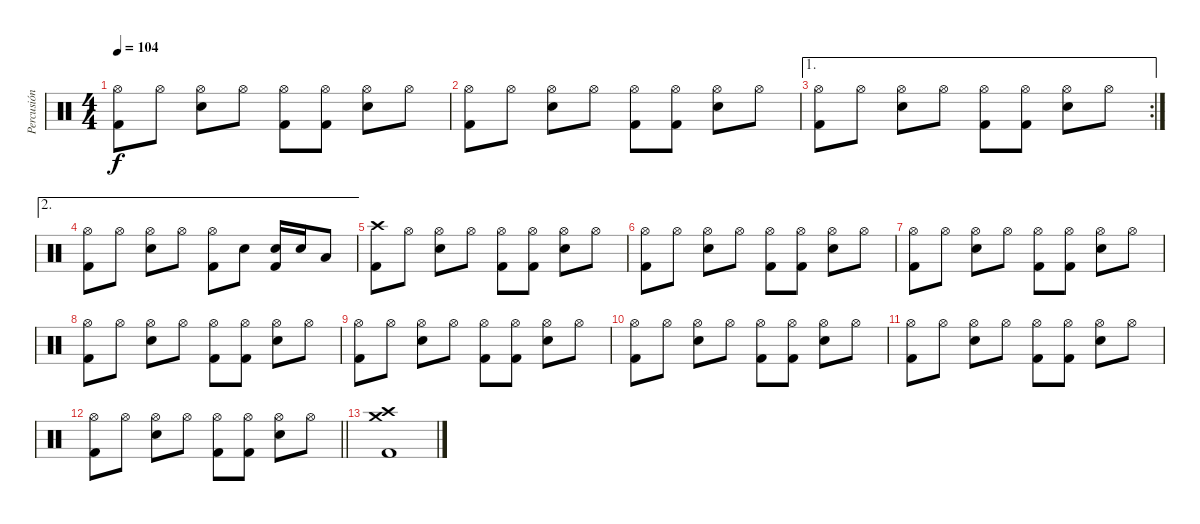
\track ("Percusión" "Percusión") {instrument percussion}
\staff {score}
\articulation defaults
\ts (4 4)
\tempo 104
\clef neutral
\ks c
("Hi-Hat (open)" "Kick (hit) 2").8{dy f} "Hi-Hat (open)".8 ("Hi-Hat (open)" "Snare (hit) 2").8 "Hi-Hat (open)".8 ("Hi-Hat (open)" "Kick (hit) 2").8 ("Hi-Hat (open)" "Kick (hit) 2").8 ("Hi-Hat (open)" "Snare (hit) 2").8 "Hi-Hat (open)".8 |
("Hi-Hat (open)" "Kick (hit) 2").8 "Hi-Hat (open)".8 ("Hi-Hat (open)" "Snare (hit) 2").8 "Hi-Hat (open)".8 ("Hi-Hat (open)" "Kick (hit) 2").8 ("Hi-Hat (open)" "Kick (hit) 2").8 ("Hi-Hat (open)" "Snare (hit) 2").8 "Hi-Hat (open)".8 |
\ae 1
\rc 2
("Hi-Hat (open)" "Kick (hit) 2").8 "Hi-Hat (open)".8 ("Hi-Hat (open)" "Snare (hit) 2").8 "Hi-Hat (open)".8 ("Hi-Hat (open)" "Kick (hit) 2").8 ("Hi-Hat (open)" "Kick (hit) 2").8 ("Hi-Hat (open)" "Snare (hit) 2").8 "Hi-Hat (open)".8 |
\ae 2
("Hi-Hat (open)" "Kick (hit) 2").8 "Hi-Hat (open)".8 ("Hi-Hat (open)" "Snare (hit) 2").8 "Hi-Hat (open)".8 ("Hi-Hat (open)" "Kick (hit) 2").8 "Snare (hit) 2".8 ("Snare (hit) 2" "Kick (hit) 2").16 "Snare (hit) 2".16 "Low Tom (hit)".8 |
("Crash high (hit)" "Kick (hit) 2").8 "Hi-Hat (open)".8 ("Hi-Hat (open)" "Snare (hit) 2").8 "Hi-Hat (open)".8 ("Hi-Hat (open)" "Kick (hit) 2").8 ("Hi-Hat (open)" "Kick (hit) 2").8 ("Hi-Hat (open)" "Snare (hit) 2").8 "Hi-Hat (open)".8 |
("Hi-Hat (open)" "Kick (hit) 2").8 "Hi-Hat (open)".8 ("Hi-Hat (open)" "Snare (hit) 2").8 "Hi-Hat (open)".8 ("Hi-Hat (open)" "Kick (hit) 2").8 ("Hi-Hat (open)" "Kick (hit) 2").8 ("Hi-Hat (open)" "Snare (hit) 2").8 "Hi-Hat (open)".8 |
("Hi-Hat (open)" "Kick (hit) 2").8 "Hi-Hat (open)".8 ("Hi-Hat (open)" "Snare (hit) 2").8 "Hi-Hat (open)".8 ("Hi-Hat (open)" "Kick (hit) 2").8 ("Hi-Hat (open)" "Kick (hit) 2").8 ("Hi-Hat (open)" "Snare (hit) 2").8 "Hi-Hat (open)".8 |
("Hi-Hat (open)" "Kick (hit) 2").8 "Hi-Hat (open)".8 ("Hi-Hat (open)" "Snare (hit) 2").8 "Hi-Hat (open)".8 ("Hi-Hat (open)" "Kick (hit) 2").8 ("Hi-Hat (open)" "Kick (hit) 2").8 ("Hi-Hat (open)" "Snare (hit) 2").8 "Hi-Hat (open)".8 |
("Hi-Hat (open)" "Kick (hit) 2").8 "Hi-Hat (open)".8 ("Hi-Hat (open)" "Snare (hit) 2").8 "Hi-Hat (open)".8 ("Hi-Hat (open)" "Kick (hit) 2").8 ("Hi-Hat (open)" "Kick (hit) 2").8 ("Hi-Hat (open)" "Snare (hit) 2").8 "Hi-Hat (open)".8 |
("Hi-Hat (open)" "Kick (hit) 2").8 "Hi-Hat (open)".8 ("Hi-Hat (open)" "Snare (hit) 2").8 "Hi-Hat (open)".8 ("Hi-Hat (open)" "Kick (hit) 2").8 ("Hi-Hat (open)" "Kick (hit) 2").8 ("Hi-Hat (open)" "Snare (hit) 2").8 "Hi-Hat (open)".8 |
("Hi-Hat (open)" "Kick (hit) 2").8 "Hi-Hat (open)".8 ("Hi-Hat (open)" "Snare (hit) 2").8 "Hi-Hat (open)".8 ("Hi-Hat (open)" "Kick (hit) 2").8 ("Hi-Hat (open)" "Kick (hit) 2").8 ("Hi-Hat (open)" "Snare (hit) 2").8 "Hi-Hat (open)".8 |
\barLineRight lightlight
("Hi-Hat (open)" "Kick (hit) 2").8 "Hi-Hat (open)".8 ("Hi-Hat (open)" "Snare (hit) 2").8 "Hi-Hat (open)".8 ("Hi-Hat (open)" "Kick (hit) 2").8 ("Hi-Hat (open)" "Kick (hit) 2").8 ("Hi-Hat (open)" "Snare (hit) 2").8 "Hi-Hat (open)".8 |
("Crash medium (hit)" "Crash high (hit)" "Kick (hit) 2").1
